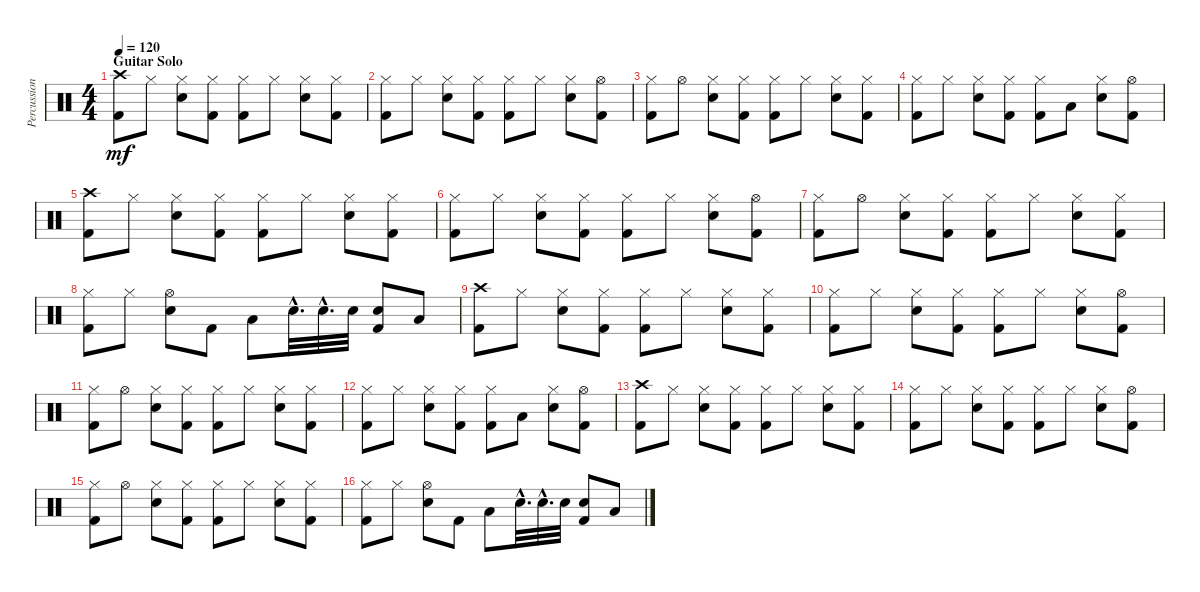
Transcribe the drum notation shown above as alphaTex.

\track ("Percussion" "Percussion") {instrument percussion}
\staff {score}
\articulation defaults
\ts (4 4)
\section ("" "Guitar Solo")
\tempo 120
\clef neutral
\ks c
("Kick (hit) 2" "Crash high (hit)").8{dy mf} "Hi-Hat (closed)".8 ("Hi-Hat (closed)" "Snare (hit) 2").8 ("Hi-Hat (closed)" "Kick (hit) 2").8 ("Kick (hit) 2" "Hi-Hat (closed)").8 "Hi-Hat (closed)".8 ("Snare (hit) 2" "Hi-Hat (closed)").8 ("Kick (hit) 2" "Hi-Hat (closed)").8 |
("Kick (hit) 2" "Hi-Hat (closed)").8 "Hi-Hat (closed)".8 ("Hi-Hat (closed)" "Snare (hit) 2").8 ("Hi-Hat (closed)" "Kick (hit) 2").8 ("Kick (hit) 2" "Hi-Hat (closed)").8 "Hi-Hat (closed)".8 ("Snare (hit) 2" "Hi-Hat (closed)").8 ("Hi-Hat (open)" "Kick (hit) 2").8 |
("Kick (hit) 2" "Hi-Hat (closed)").8 "Hi-Hat (open)".8 ("Hi-Hat (closed)" "Snare (hit) 2").8 ("Hi-Hat (closed)" "Kick (hit) 2").8 ("Kick (hit) 2" "Hi-Hat (closed)").8 "Hi-Hat (closed)".8 ("Snare (hit) 2" "Hi-Hat (closed)").8 ("Kick (hit) 2" "Hi-Hat (closed)").8 |
("Kick (hit) 2" "Hi-Hat (closed)").8 "Hi-Hat (closed)".8 ("Hi-Hat (closed)" "Snare (hit) 2").8 ("Hi-Hat (closed)" "Kick (hit) 2").8 ("Kick (hit) 2" "Hi-Hat (closed)").8 "Low Floor Tom (hit)".8 ("Snare (hit) 2" "Hi-Hat (closed)").8 ("Hi-Hat (open)" "Kick (hit) 2").8 |
("Kick (hit) 2" "Crash high (hit)").8 "Hi-Hat (closed)".8 ("Hi-Hat (closed)" "Snare (hit) 2").8 ("Hi-Hat (closed)" "Kick (hit) 2").8 ("Kick (hit) 2" "Hi-Hat (closed)").8 "Hi-Hat (closed)".8 ("Snare (hit) 2" "Hi-Hat (closed)").8 ("Kick (hit) 2" "Hi-Hat (closed)").8 |
("Kick (hit) 2" "Hi-Hat (closed)").8 "Hi-Hat (closed)".8 ("Hi-Hat (closed)" "Snare (hit) 2").8 ("Hi-Hat (closed)" "Kick (hit) 2").8 ("Kick (hit) 2" "Hi-Hat (closed)").8 "Hi-Hat (closed)".8 ("Snare (hit) 2" "Hi-Hat (closed)").8 ("Hi-Hat (open)" "Kick (hit) 2").8 |
("Kick (hit) 2" "Hi-Hat (closed)").8 "Hi-Hat (open)".8 ("Hi-Hat (closed)" "Snare (hit) 2").8 ("Hi-Hat (closed)" "Kick (hit) 2").8 ("Kick (hit) 2" "Hi-Hat (closed)").8 "Hi-Hat (closed)".8 ("Snare (hit) 2" "Hi-Hat (closed)").8 ("Kick (hit) 2" "Hi-Hat (closed)").8 |
("Kick (hit) 2" "Hi-Hat (closed)").8 "Hi-Hat (closed)".8 ("Hi-Hat (open)" "Snare (hit) 2").8 "Kick (hit) 2".8 "Low Tom (hit)".8 "Snare (hit) 2"{hac}.32{d} "Snare (hit) 2"{hac}.32{d} "Snare (hit) 2".32 ("Snare (hit) 2" "Kick (hit) 2").8 "Low Floor Tom (hit)".8 |
("Kick (hit) 2" "Crash high (hit)").8 "Hi-Hat (closed)".8 ("Hi-Hat (closed)" "Snare (hit) 2").8 ("Hi-Hat (closed)" "Kick (hit) 2").8 ("Kick (hit) 2" "Hi-Hat (closed)").8 "Hi-Hat (closed)".8 ("Snare (hit) 2" "Hi-Hat (closed)").8 ("Kick (hit) 2" "Hi-Hat (closed)").8 |
("Kick (hit) 2" "Hi-Hat (closed)").8 "Hi-Hat (closed)".8 ("Hi-Hat (closed)" "Snare (hit) 2").8 ("Hi-Hat (closed)" "Kick (hit) 2").8 ("Kick (hit) 2" "Hi-Hat (closed)").8 "Hi-Hat (closed)".8 ("Snare (hit) 2" "Hi-Hat (closed)").8 ("Hi-Hat (open)" "Kick (hit) 2").8 |
("Kick (hit) 2" "Hi-Hat (closed)").8 "Hi-Hat (open)".8 ("Hi-Hat (closed)" "Snare (hit) 2").8 ("Hi-Hat (closed)" "Kick (hit) 2").8 ("Kick (hit) 2" "Hi-Hat (closed)").8 "Hi-Hat (closed)".8 ("Snare (hit) 2" "Hi-Hat (closed)").8 ("Kick (hit) 2" "Hi-Hat (closed)").8 |
("Kick (hit) 2" "Hi-Hat (closed)").8 "Hi-Hat (closed)".8 ("Hi-Hat (closed)" "Snare (hit) 2").8 ("Hi-Hat (closed)" "Kick (hit) 2").8 ("Kick (hit) 2" "Hi-Hat (closed)").8 "Low Floor Tom (hit)".8 ("Snare (hit) 2" "Hi-Hat (closed)").8 ("Hi-Hat (open)" "Kick (hit) 2").8 |
("Kick (hit) 2" "Crash high (hit)").8 "Hi-Hat (closed)".8 ("Hi-Hat (closed)" "Snare (hit) 2").8 ("Hi-Hat (closed)" "Kick (hit) 2").8 ("Kick (hit) 2" "Hi-Hat (closed)").8 "Hi-Hat (closed)".8 ("Snare (hit) 2" "Hi-Hat (closed)").8 ("Kick (hit) 2" "Hi-Hat (closed)").8 |
("Kick (hit) 2" "Hi-Hat (closed)").8 "Hi-Hat (closed)".8 ("Hi-Hat (closed)" "Snare (hit) 2").8 ("Hi-Hat (closed)" "Kick (hit) 2").8 ("Kick (hit) 2" "Hi-Hat (closed)").8 "Hi-Hat (closed)".8 ("Snare (hit) 2" "Hi-Hat (closed)").8 ("Hi-Hat (open)" "Kick (hit) 2").8 |
("Kick (hit) 2" "Hi-Hat (closed)").8 "Hi-Hat (open)".8 ("Hi-Hat (closed)" "Snare (hit) 2").8 ("Hi-Hat (closed)" "Kick (hit) 2").8 ("Kick (hit) 2" "Hi-Hat (closed)").8 "Hi-Hat (closed)".8 ("Snare (hit) 2" "Hi-Hat (closed)").8 ("Kick (hit) 2" "Hi-Hat (closed)").8 |
("Kick (hit) 2" "Hi-Hat (closed)").8 "Hi-Hat (closed)".8 ("Hi-Hat (open)" "Snare (hit) 2").8 "Kick (hit) 2".8 "Low Tom (hit)".8 "Snare (hit) 2"{hac}.32{d} "Snare (hit) 2"{hac}.32{d} "Snare (hit) 2".32 ("Snare (hit) 2" "Kick (hit) 2").8 "Low Floor Tom (hit)".8
